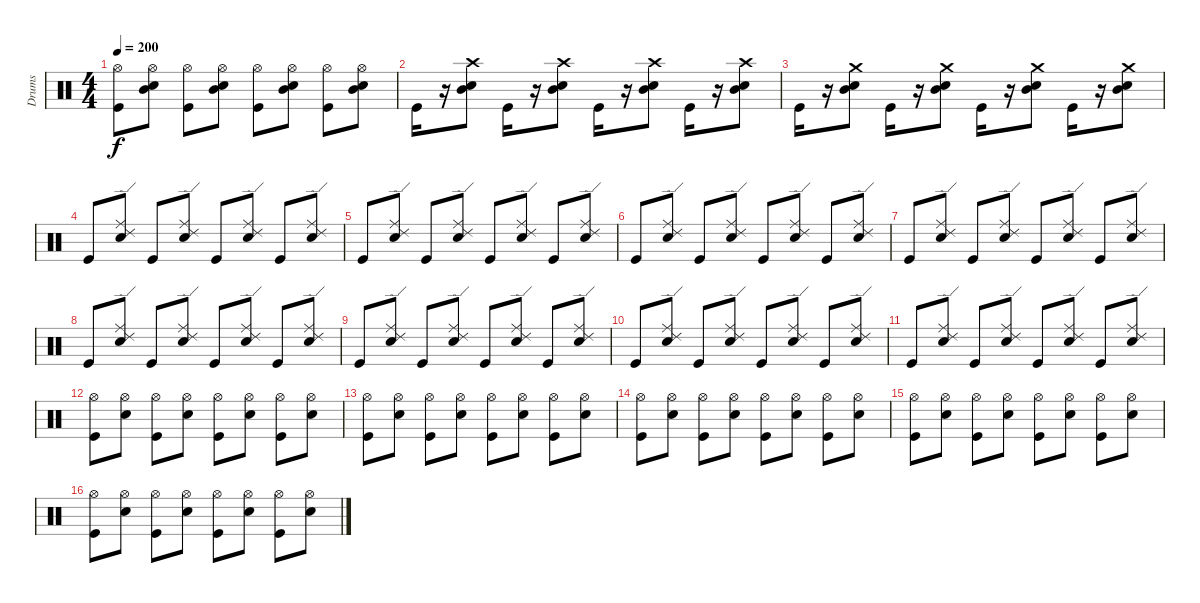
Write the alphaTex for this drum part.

\track ("Drums" "Drums") {instrument percussion}
\staff {score}
\articulation defaults
\ts (4 4)
\tempo 200
\clef neutral
\ks c
("Kick (hit)" "Hi-Hat (open)").8{dy f} ("Electric Snare (hit)" "Hi-Hat (open)" "Mid Tom (hit)").8 ("Kick (hit)" "Hi-Hat (open)").8 ("Hi-Hat (open)" "Mid Tom (hit)" "Electric Snare (hit)").8 ("Hi-Hat (open)" "Kick (hit)").8 ("Hi-Hat (open)" "Electric Snare (hit)" "Mid Tom (hit)").8 ("Kick (hit)" "Hi-Hat (open)").8 ("Hi-Hat (open)" "Mid Tom (hit)" "Electric Snare (hit)").8 |
"Kick (hit)".16 r.16 ("Crash high (hit)" "Electric Snare (hit)" "Mid Tom (hit)").8 "Kick (hit)".16 r.16 ("Electric Snare (hit)" "Crash high (hit)" "Mid Tom (hit)").8 "Kick (hit)".16 r.16 ("Electric Snare (hit)" "Crash high (hit)" "Mid Tom (hit)").8 "Kick (hit)".16 r.16 ("Crash high (hit)" "Mid Tom (hit)" "Electric Snare (hit)").8 |
"Kick (hit)".16 r.16 ("Crash medium (hit)" "Electric Snare (hit)" "Mid Tom (hit)").8 "Kick (hit)".16 r.16 ("Electric Snare (hit)" "Crash medium (hit)" "Mid Tom (hit)").8 "Kick (hit)".16 r.16 ("Crash medium (hit)" "Mid Tom (hit)" "Electric Snare (hit)").8 "Kick (hit)".16 r.16 ("Electric Snare (hit)" "Crash medium (hit)" "Mid Tom (hit)").8 |
"Kick (hit)".8 ("Electric Snare (hit)" "Ride (middle)" "Ride (edge) 2").8 "Kick (hit)".8 ("Electric Snare (hit)" "Ride (edge) 2" "Ride (middle)").8 "Kick (hit)".8 ("Electric Snare (hit)" "Ride (edge) 2" "Ride (middle)").8 "Kick (hit)".8 ("Electric Snare (hit)" "Ride (edge) 2" "Ride (middle)").8 |
"Kick (hit)".8 ("Electric Snare (hit)" "Ride (middle)" "Ride (edge) 2").8 "Kick (hit)".8 ("Electric Snare (hit)" "Ride (edge) 2" "Ride (middle)").8 "Kick (hit)".8 ("Electric Snare (hit)" "Ride (edge) 2" "Ride (middle)").8 "Kick (hit)".8 ("Electric Snare (hit)" "Ride (edge) 2" "Ride (middle)").8 |
"Kick (hit)".8 ("Electric Snare (hit)" "Ride (middle)" "Ride (edge) 2").8 "Kick (hit)".8 ("Electric Snare (hit)" "Ride (edge) 2" "Ride (middle)").8 "Kick (hit)".8 ("Electric Snare (hit)" "Ride (edge) 2" "Ride (middle)").8 "Kick (hit)".8 ("Electric Snare (hit)" "Ride (edge) 2" "Ride (middle)").8 |
"Kick (hit)".8 ("Electric Snare (hit)" "Ride (middle)" "Ride (edge) 2").8 "Kick (hit)".8 ("Electric Snare (hit)" "Ride (edge) 2" "Ride (middle)").8 "Kick (hit)".8 ("Electric Snare (hit)" "Ride (edge) 2" "Ride (middle)").8 "Kick (hit)".8 ("Electric Snare (hit)" "Ride (edge) 2" "Ride (middle)").8 |
"Kick (hit)".8 ("Electric Snare (hit)" "Ride (middle)" "Ride (edge) 2").8 "Kick (hit)".8 ("Electric Snare (hit)" "Ride (edge) 2" "Ride (middle)").8 "Kick (hit)".8 ("Electric Snare (hit)" "Ride (edge) 2" "Ride (middle)").8 "Kick (hit)".8 ("Electric Snare (hit)" "Ride (edge) 2" "Ride (middle)").8 |
"Kick (hit)".8 ("Electric Snare (hit)" "Ride (middle)" "Ride (edge) 2").8 "Kick (hit)".8 ("Electric Snare (hit)" "Ride (edge) 2" "Ride (middle)").8 "Kick (hit)".8 ("Electric Snare (hit)" "Ride (edge) 2" "Ride (middle)").8 "Kick (hit)".8 ("Electric Snare (hit)" "Ride (edge) 2" "Ride (middle)").8 |
"Kick (hit)".8 ("Electric Snare (hit)" "Ride (middle)" "Ride (edge) 2").8 "Kick (hit)".8 ("Electric Snare (hit)" "Ride (edge) 2" "Ride (middle)").8 "Kick (hit)".8 ("Electric Snare (hit)" "Ride (edge) 2" "Ride (middle)").8 "Kick (hit)".8 ("Electric Snare (hit)" "Ride (edge) 2" "Ride (middle)").8 |
"Kick (hit)".8 ("Electric Snare (hit)" "Ride (middle)" "Ride (edge) 2").8 "Kick (hit)".8 ("Electric Snare (hit)" "Ride (edge) 2" "Ride (middle)").8 "Kick (hit)".8 ("Electric Snare (hit)" "Ride (edge) 2" "Ride (middle)").8 "Kick (hit)".8 ("Electric Snare (hit)" "Ride (edge) 2" "Ride (middle)").8 |
("Hi-Hat (open)" "Kick (hit)").8 ("Hi-Hat (open)" "Electric Snare (hit)").8 ("Hi-Hat (open)" "Kick (hit)").8 ("Hi-Hat (open)" "Electric Snare (hit)").8 ("Hi-Hat (open)" "Kick (hit)").8 ("Hi-Hat (open)" "Electric Snare (hit)").8 ("Hi-Hat (open)" "Kick (hit)").8 ("Hi-Hat (open)" "Electric Snare (hit)").8 |
("Hi-Hat (open)" "Kick (hit)").8 ("Hi-Hat (open)" "Electric Snare (hit)").8 ("Hi-Hat (open)" "Kick (hit)").8 ("Hi-Hat (open)" "Electric Snare (hit)").8 ("Hi-Hat (open)" "Kick (hit)").8 ("Hi-Hat (open)" "Electric Snare (hit)").8 ("Hi-Hat (open)" "Kick (hit)").8 ("Hi-Hat (open)" "Electric Snare (hit)").8 |
("Hi-Hat (open)" "Kick (hit)").8 ("Hi-Hat (open)" "Electric Snare (hit)").8 ("Hi-Hat (open)" "Kick (hit)").8 ("Hi-Hat (open)" "Electric Snare (hit)").8 ("Hi-Hat (open)" "Kick (hit)").8 ("Hi-Hat (open)" "Electric Snare (hit)").8 ("Hi-Hat (open)" "Kick (hit)").8 ("Hi-Hat (open)" "Electric Snare (hit)").8 |
("Hi-Hat (open)" "Kick (hit)").8 ("Hi-Hat (open)" "Electric Snare (hit)").8 ("Hi-Hat (open)" "Kick (hit)").8 ("Hi-Hat (open)" "Electric Snare (hit)").8 ("Hi-Hat (open)" "Kick (hit)").8 ("Hi-Hat (open)" "Electric Snare (hit)").8 ("Hi-Hat (open)" "Kick (hit)").8 ("Hi-Hat (open)" "Electric Snare (hit)").8 |
("Hi-Hat (open)" "Kick (hit)").8 ("Hi-Hat (open)" "Electric Snare (hit)").8 ("Hi-Hat (open)" "Kick (hit)").8 ("Hi-Hat (open)" "Electric Snare (hit)").8 ("Hi-Hat (open)" "Kick (hit)").8 ("Hi-Hat (open)" "Electric Snare (hit)").8 ("Hi-Hat (open)" "Kick (hit)").8 ("Hi-Hat (open)" "Electric Snare (hit)").8
